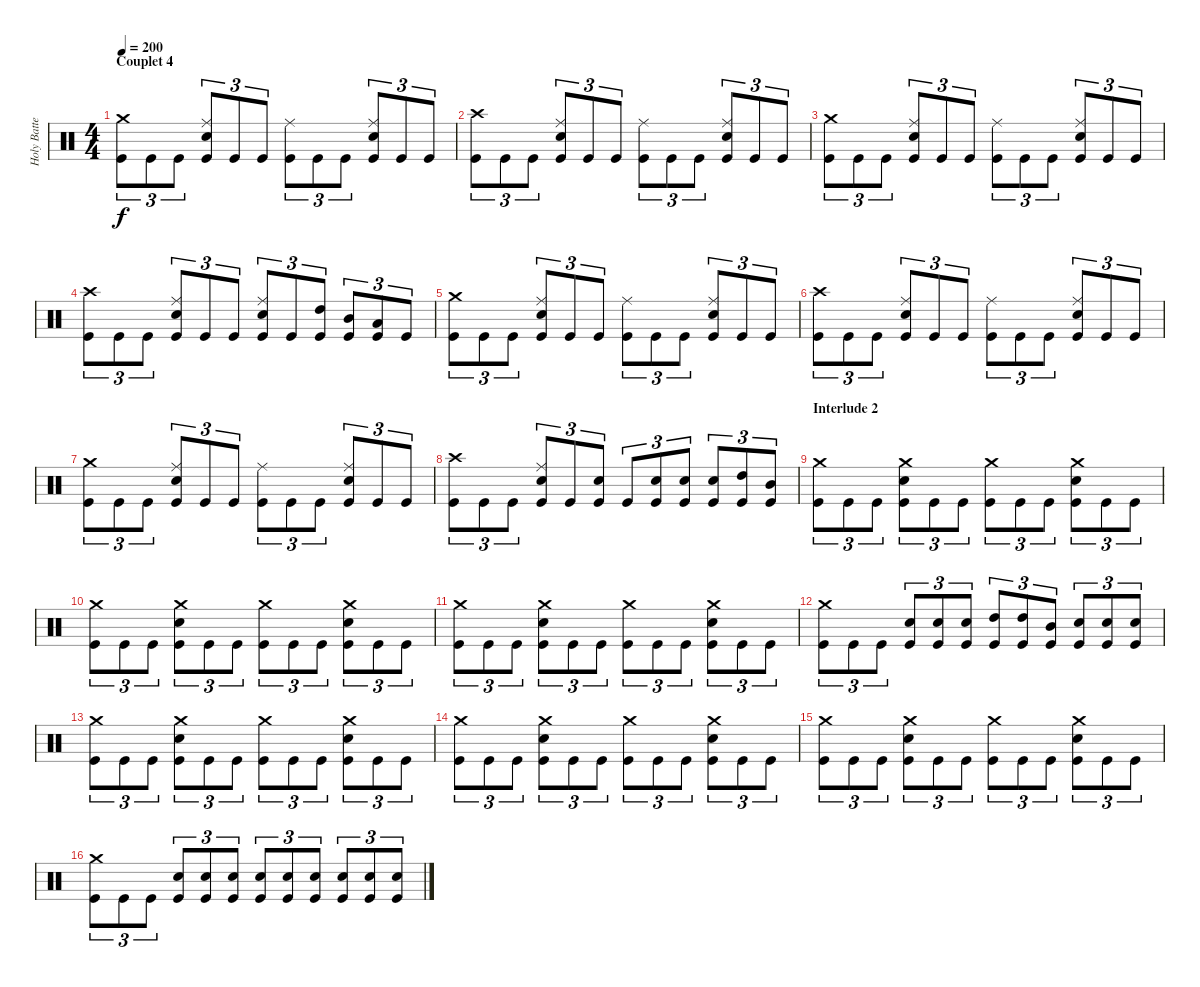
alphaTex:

\track ("Holy Batteur" "Holy Batte") {instrument percussion}
\staff {score}
\articulation defaults
\ts (4 4)
\section ("" "Couplet 4")
\tempo 200
\clef neutral
\ks c
("Crash medium (hit)" "Kick (hit)").8{tu (3 2) dy f} "Kick (hit)".8{tu (3 2)} "Kick (hit)".8{tu (3 2)} ("Ride (middle)" "Electric Snare (hit)" "Kick (hit)").8{tu (3 2)} "Kick (hit)".8{tu (3 2)} "Kick (hit)".8{tu (3 2)} ("Ride (middle)" "Kick (hit)").8{tu (3 2)} "Kick (hit)".8{tu (3 2)} "Kick (hit)".8{tu (3 2)} ("Ride (middle)" "Electric Snare (hit)" "Kick (hit)").8{tu (3 2)} "Kick (hit)".8{tu (3 2)} "Kick (hit)".8{tu (3 2)} |
("Crash high (hit)" "Kick (hit)").8{tu (3 2)} "Kick (hit)".8{tu (3 2)} "Kick (hit)".8{tu (3 2)} ("Ride (middle)" "Electric Snare (hit)" "Kick (hit)").8{tu (3 2)} "Kick (hit)".8{tu (3 2)} "Kick (hit)".8{tu (3 2)} ("Ride (middle)" "Kick (hit)").8{tu (3 2)} "Kick (hit)".8{tu (3 2)} "Kick (hit)".8{tu (3 2)} ("Ride (middle)" "Electric Snare (hit)" "Kick (hit)").8{tu (3 2)} "Kick (hit)".8{tu (3 2)} "Kick (hit)".8{tu (3 2)} |
("Crash medium (hit)" "Kick (hit)").8{tu (3 2)} "Kick (hit)".8{tu (3 2)} "Kick (hit)".8{tu (3 2)} ("Ride (middle)" "Electric Snare (hit)" "Kick (hit)").8{tu (3 2)} "Kick (hit)".8{tu (3 2)} "Kick (hit)".8{tu (3 2)} ("Ride (middle)" "Kick (hit)").8{tu (3 2)} "Kick (hit)".8{tu (3 2)} "Kick (hit)".8{tu (3 2)} ("Ride (middle)" "Electric Snare (hit)" "Kick (hit)").8{tu (3 2)} "Kick (hit)".8{tu (3 2)} "Kick (hit)".8{tu (3 2)} |
("Crash high (hit)" "Kick (hit)").8{tu (3 2)} "Kick (hit)".8{tu (3 2)} "Kick (hit)".8{tu (3 2)} ("Ride (middle)" "Electric Snare (hit)" "Kick (hit)").8{tu (3 2)} "Kick (hit)".8{tu (3 2)} "Kick (hit)".8{tu (3 2)} ("Ride (middle)" "Electric Snare (hit)" "Kick (hit)").8{tu (3 2)} "Kick (hit)".8{tu (3 2)} ("High Tom (hit)" "Kick (hit)").8{tu (3 2)} ("Mid Tom (hit)" "Kick (hit)").8{tu (3 2)} ("Low Tom (hit)" "Kick (hit)").8{tu (3 2)} "Kick (hit)".8{tu (3 2)} |
("Crash medium (hit)" "Kick (hit)").8{tu (3 2)} "Kick (hit)".8{tu (3 2)} "Kick (hit)".8{tu (3 2)} ("Ride (middle)" "Electric Snare (hit)" "Kick (hit)").8{tu (3 2)} "Kick (hit)".8{tu (3 2)} "Kick (hit)".8{tu (3 2)} ("Ride (middle)" "Kick (hit)").8{tu (3 2)} "Kick (hit)".8{tu (3 2)} "Kick (hit)".8{tu (3 2)} ("Ride (middle)" "Electric Snare (hit)" "Kick (hit)").8{tu (3 2)} "Kick (hit)".8{tu (3 2)} "Kick (hit)".8{tu (3 2)} |
("Crash high (hit)" "Kick (hit)").8{tu (3 2)} "Kick (hit)".8{tu (3 2)} "Kick (hit)".8{tu (3 2)} ("Ride (middle)" "Electric Snare (hit)" "Kick (hit)").8{tu (3 2)} "Kick (hit)".8{tu (3 2)} "Kick (hit)".8{tu (3 2)} ("Ride (middle)" "Kick (hit)").8{tu (3 2)} "Kick (hit)".8{tu (3 2)} "Kick (hit)".8{tu (3 2)} ("Ride (middle)" "Electric Snare (hit)" "Kick (hit)").8{tu (3 2)} "Kick (hit)".8{tu (3 2)} "Kick (hit)".8{tu (3 2)} |
("Crash medium (hit)" "Kick (hit)").8{tu (3 2)} "Kick (hit)".8{tu (3 2)} "Kick (hit)".8{tu (3 2)} ("Ride (middle)" "Electric Snare (hit)" "Kick (hit)").8{tu (3 2)} "Kick (hit)".8{tu (3 2)} "Kick (hit)".8{tu (3 2)} ("Ride (middle)" "Kick (hit)").8{tu (3 2)} "Kick (hit)".8{tu (3 2)} "Kick (hit)".8{tu (3 2)} ("Ride (middle)" "Electric Snare (hit)" "Kick (hit)").8{tu (3 2)} "Kick (hit)".8{tu (3 2)} "Kick (hit)".8{tu (3 2)} |
("Crash high (hit)" "Kick (hit)").8{tu (3 2)} "Kick (hit)".8{tu (3 2)} "Kick (hit)".8{tu (3 2)} ("Ride (middle)" "Electric Snare (hit)" "Kick (hit)").8{tu (3 2)} "Kick (hit)".8{tu (3 2)} ("Electric Snare (hit)" "Kick (hit)").8{tu (3 2)} "Kick (hit)".8{tu (3 2)} ("Electric Snare (hit)" "Kick (hit)").8{tu (3 2)} ("Electric Snare (hit)" "Kick (hit)").8{tu (3 2)} ("Electric Snare (hit)" "Kick (hit)").8{tu (3 2)} ("High Tom (hit)" "Kick (hit)").8{tu (3 2)} ("Mid Tom (hit)" "Kick (hit)").8{tu (3 2)} |
\section ("" "Interlude 2")
("Crash medium (hit)" "Kick (hit)").8{tu (3 2)} "Kick (hit)".8{tu (3 2)} "Kick (hit)".8{tu (3 2)} ("Crash medium (hit)" "Electric Snare (hit)" "Kick (hit)").8{tu (3 2)} "Kick (hit)".8{tu (3 2)} "Kick (hit)".8{tu (3 2)} ("Crash medium (hit)" "Kick (hit)").8{tu (3 2)} "Kick (hit)".8{tu (3 2)} "Kick (hit)".8{tu (3 2)} ("Crash medium (hit)" "Electric Snare (hit)" "Kick (hit)").8{tu (3 2)} "Kick (hit)".8{tu (3 2)} "Kick (hit)".8{tu (3 2)} |
("Crash medium (hit)" "Kick (hit)").8{tu (3 2)} "Kick (hit)".8{tu (3 2)} "Kick (hit)".8{tu (3 2)} ("Crash medium (hit)" "Electric Snare (hit)" "Kick (hit)").8{tu (3 2)} "Kick (hit)".8{tu (3 2)} "Kick (hit)".8{tu (3 2)} ("Crash medium (hit)" "Kick (hit)").8{tu (3 2)} "Kick (hit)".8{tu (3 2)} "Kick (hit)".8{tu (3 2)} ("Crash medium (hit)" "Electric Snare (hit)" "Kick (hit)").8{tu (3 2)} "Kick (hit)".8{tu (3 2)} "Kick (hit)".8{tu (3 2)} |
("Crash medium (hit)" "Kick (hit)").8{tu (3 2)} "Kick (hit)".8{tu (3 2)} "Kick (hit)".8{tu (3 2)} ("Crash medium (hit)" "Electric Snare (hit)" "Kick (hit)").8{tu (3 2)} "Kick (hit)".8{tu (3 2)} "Kick (hit)".8{tu (3 2)} ("Crash medium (hit)" "Kick (hit)").8{tu (3 2)} "Kick (hit)".8{tu (3 2)} "Kick (hit)".8{tu (3 2)} ("Crash medium (hit)" "Electric Snare (hit)" "Kick (hit)").8{tu (3 2)} "Kick (hit)".8{tu (3 2)} "Kick (hit)".8{tu (3 2)} |
("Crash medium (hit)" "Kick (hit)").8{tu (3 2)} "Kick (hit)".8{tu (3 2)} "Kick (hit)".8{tu (3 2)} ("Electric Snare (hit)" "Kick (hit)").8{tu (3 2)} ("Electric Snare (hit)" "Kick (hit)").8{tu (3 2)} ("Electric Snare (hit)" "Kick (hit)").8{tu (3 2)} ("High Tom (hit)" "Kick (hit)").8{tu (3 2)} ("High Tom (hit)" "Kick (hit)").8{tu (3 2)} ("Mid Tom (hit)" "Kick (hit)").8{tu (3 2)} ("Electric Snare (hit)" "Kick (hit)").8{tu (3 2)} ("Electric Snare (hit)" "Kick (hit)").8{tu (3 2)} ("Electric Snare (hit)" "Kick (hit)").8{tu (3 2)} |
("Crash medium (hit)" "Kick (hit)").8{tu (3 2)} "Kick (hit)".8{tu (3 2)} "Kick (hit)".8{tu (3 2)} ("Crash medium (hit)" "Electric Snare (hit)" "Kick (hit)").8{tu (3 2)} "Kick (hit)".8{tu (3 2)} "Kick (hit)".8{tu (3 2)} ("Crash medium (hit)" "Kick (hit)").8{tu (3 2)} "Kick (hit)".8{tu (3 2)} "Kick (hit)".8{tu (3 2)} ("Crash medium (hit)" "Electric Snare (hit)" "Kick (hit)").8{tu (3 2)} "Kick (hit)".8{tu (3 2)} "Kick (hit)".8{tu (3 2)} |
("Crash medium (hit)" "Kick (hit)").8{tu (3 2)} "Kick (hit)".8{tu (3 2)} "Kick (hit)".8{tu (3 2)} ("Crash medium (hit)" "Electric Snare (hit)" "Kick (hit)").8{tu (3 2)} "Kick (hit)".8{tu (3 2)} "Kick (hit)".8{tu (3 2)} ("Crash medium (hit)" "Kick (hit)").8{tu (3 2)} "Kick (hit)".8{tu (3 2)} "Kick (hit)".8{tu (3 2)} ("Crash medium (hit)" "Electric Snare (hit)" "Kick (hit)").8{tu (3 2)} "Kick (hit)".8{tu (3 2)} "Kick (hit)".8{tu (3 2)} |
("Crash medium (hit)" "Kick (hit)").8{tu (3 2)} "Kick (hit)".8{tu (3 2)} "Kick (hit)".8{tu (3 2)} ("Crash medium (hit)" "Electric Snare (hit)" "Kick (hit)").8{tu (3 2)} "Kick (hit)".8{tu (3 2)} "Kick (hit)".8{tu (3 2)} ("Crash medium (hit)" "Kick (hit)").8{tu (3 2)} "Kick (hit)".8{tu (3 2)} "Kick (hit)".8{tu (3 2)} ("Crash medium (hit)" "Electric Snare (hit)" "Kick (hit)").8{tu (3 2)} "Kick (hit)".8{tu (3 2)} "Kick (hit)".8{tu (3 2)} |
("Crash medium (hit)" "Kick (hit)").8{tu (3 2)} "Kick (hit)".8{tu (3 2)} "Kick (hit)".8{tu (3 2)} ("Electric Snare (hit)" "Kick (hit)").8{tu (3 2)} ("Electric Snare (hit)" "Kick (hit)").8{tu (3 2)} ("Electric Snare (hit)" "Kick (hit)").8{tu (3 2)} ("Electric Snare (hit)" "Kick (hit)").8{tu (3 2)} ("Electric Snare (hit)" "Kick (hit)").8{tu (3 2)} ("Electric Snare (hit)" "Kick (hit)").8{tu (3 2)} ("Electric Snare (hit)" "Kick (hit)").8{tu (3 2)} ("Electric Snare (hit)" "Kick (hit)").8{tu (3 2)} ("Electric Snare (hit)" "Kick (hit)").8{tu (3 2)}
